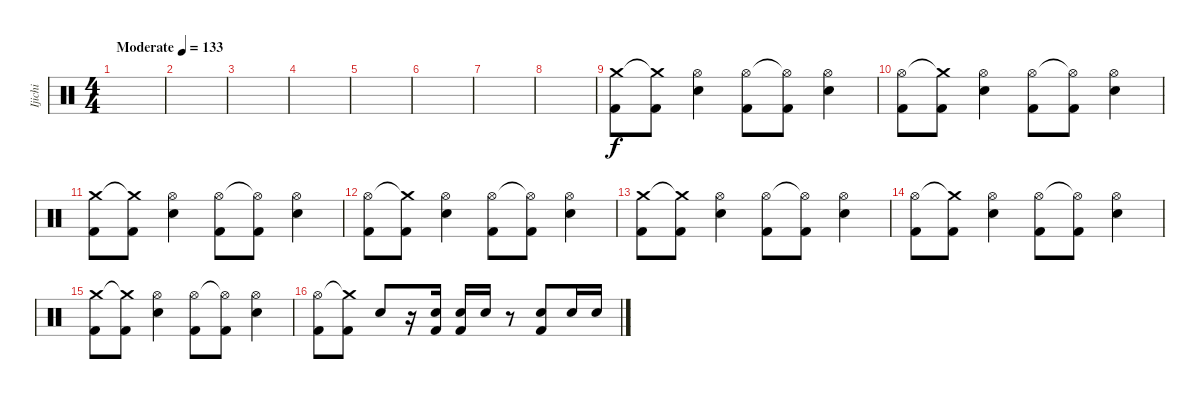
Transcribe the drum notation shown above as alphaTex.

\track ("Ijichi" "Ijichi") {instrument percussion}
\staff {score}
\articulation defaults
\ts (4 4)
\tempo (133 "Moderate")
\clef neutral
\ks c
|
|
|
|
|
|
|
|
("Kick (hit) 2" "Crash medium (hit)").8 ("Kick (hit) 2" "Crash medium (hit)"{t}).8 ("Hi-Hat (open)" "Electric Snare (hit)").4 ("Kick (hit) 2" "Hi-Hat (open)").8 ("Kick (hit) 2" "Hi-Hat (open)"{t}).8 ("Hi-Hat (open)" "Electric Snare (hit)").4 |
("Kick (hit) 2" "Hi-Hat (open)").8 ("Kick (hit) 2" "Crash medium (hit)"{t}).8 ("Hi-Hat (open)" "Electric Snare (hit)").4 ("Kick (hit) 2" "Hi-Hat (open)").8 ("Kick (hit) 2" "Hi-Hat (open)"{t}).8 ("Hi-Hat (open)" "Electric Snare (hit)").4 |
("Kick (hit) 2" "Crash medium (hit)").8 ("Kick (hit) 2" "Crash medium (hit)"{t}).8 ("Hi-Hat (open)" "Electric Snare (hit)").4 ("Kick (hit) 2" "Hi-Hat (open)").8 ("Kick (hit) 2" "Hi-Hat (open)"{t}).8 ("Hi-Hat (open)" "Electric Snare (hit)").4 |
("Kick (hit) 2" "Hi-Hat (open)").8 ("Kick (hit) 2" "Crash medium (hit)"{t}).8 ("Hi-Hat (open)" "Electric Snare (hit)").4 ("Kick (hit) 2" "Hi-Hat (open)").8 ("Kick (hit) 2" "Hi-Hat (open)"{t}).8 ("Hi-Hat (open)" "Electric Snare (hit)").4 |
("Kick (hit) 2" "Crash medium (hit)").8 ("Kick (hit) 2" "Crash medium (hit)"{t}).8 ("Hi-Hat (open)" "Electric Snare (hit)").4 ("Kick (hit) 2" "Hi-Hat (open)").8 ("Kick (hit) 2" "Hi-Hat (open)"{t}).8 ("Hi-Hat (open)" "Electric Snare (hit)").4 |
("Kick (hit) 2" "Hi-Hat (open)").8 ("Kick (hit) 2" "Crash medium (hit)"{t}).8 ("Hi-Hat (open)" "Electric Snare (hit)").4 ("Kick (hit) 2" "Hi-Hat (open)").8 ("Kick (hit) 2" "Hi-Hat (open)"{t}).8 ("Hi-Hat (open)" "Electric Snare (hit)").4 |
("Kick (hit) 2" "Crash medium (hit)").8 ("Kick (hit) 2" "Crash medium (hit)"{t}).8 ("Hi-Hat (open)" "Electric Snare (hit)").4 ("Kick (hit) 2" "Hi-Hat (open)").8 ("Kick (hit) 2" "Hi-Hat (open)"{t}).8 ("Hi-Hat (open)" "Electric Snare (hit)").4 |
("Kick (hit) 2" "Hi-Hat (open)").8 ("Kick (hit) 2" "Crash medium (hit)"{t}).8 "Electric Snare (hit)".8 r.16 ("Kick (hit) 2" "Electric Snare (hit)").16 ("Kick (hit) 2" "Electric Snare (hit)").16 "Electric Snare (hit)".16 r.8 ("Kick (hit) 2" "Electric Snare (hit)").8 "Electric Snare (hit)".16 "Electric Snare (hit)".16
